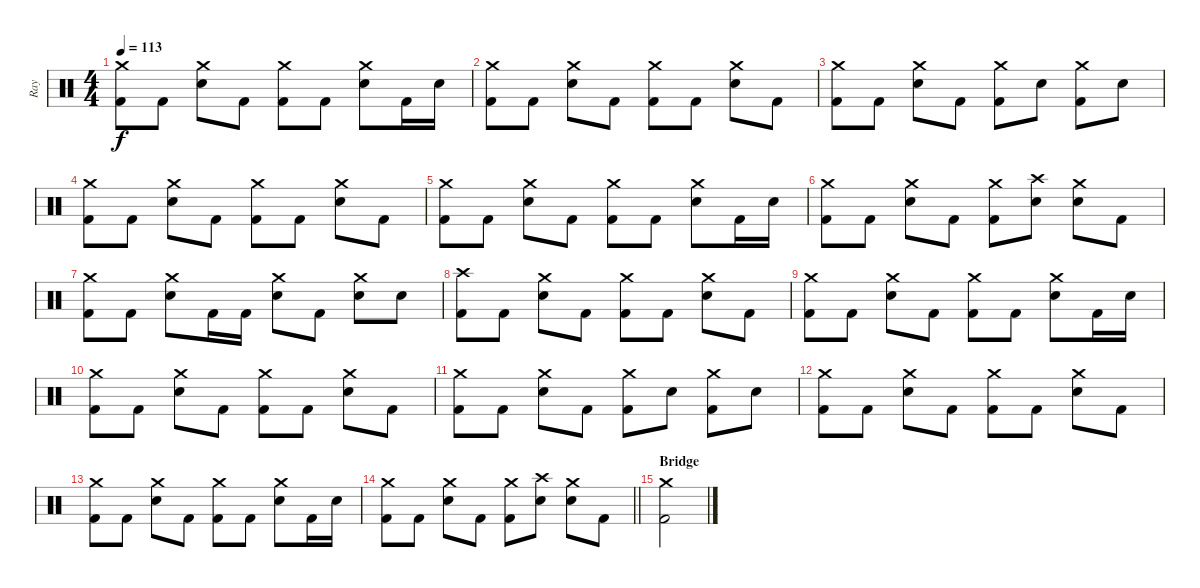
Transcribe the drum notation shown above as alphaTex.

\track ("Ray" "Ray") {instrument percussion}
\staff {score}
\articulation defaults
\ts (4 4)
\tempo 113
\clef neutral
\ks c
("Crash medium (hit)" "Kick (hit) 2").8{dy f} "Kick (hit) 2".8 ("Crash medium (hit)" "Electric Snare (hit)").8 "Kick (hit) 2".8 ("Crash medium (hit)" "Kick (hit) 2").8 "Kick (hit) 2".8 ("Crash medium (hit)" "Electric Snare (hit)").8 "Kick (hit) 2".16 "Electric Snare (hit)".16 |
("Crash medium (hit)" "Kick (hit) 2").8 "Kick (hit) 2".8 ("Crash medium (hit)" "Electric Snare (hit)").8 "Kick (hit) 2".8 ("Crash medium (hit)" "Kick (hit) 2").8 "Kick (hit) 2".8 ("Crash medium (hit)" "Electric Snare (hit)").8 "Kick (hit) 2".8 |
("Crash medium (hit)" "Kick (hit) 2").8 "Kick (hit) 2".8 ("Crash medium (hit)" "Electric Snare (hit)").8 "Kick (hit) 2".8 ("Crash medium (hit)" "Kick (hit) 2").8 "Electric Snare (hit)".8 ("Crash medium (hit)" "Kick (hit) 2").8 "Electric Snare (hit)".8 |
("Crash medium (hit)" "Kick (hit) 2").8 "Kick (hit) 2".8 ("Crash medium (hit)" "Electric Snare (hit)").8 "Kick (hit) 2".8 ("Crash medium (hit)" "Kick (hit) 2").8 "Kick (hit) 2".8 ("Crash medium (hit)" "Electric Snare (hit)").8 "Kick (hit) 2".8 |
("Crash medium (hit)" "Kick (hit) 2").8 "Kick (hit) 2".8 ("Crash medium (hit)" "Electric Snare (hit)").8 "Kick (hit) 2".8 ("Crash medium (hit)" "Kick (hit) 2").8 "Kick (hit) 2".8 ("Crash medium (hit)" "Electric Snare (hit)").8 "Kick (hit) 2".16 "Electric Snare (hit)".16 |
("Crash medium (hit)" "Kick (hit) 2").8 "Kick (hit) 2".8 ("Crash medium (hit)" "Electric Snare (hit)").8 "Kick (hit) 2".8 ("Crash medium (hit)" "Kick (hit) 2").8 ("Crash high (hit)" "Electric Snare (hit)").8 ("Crash medium (hit)" "Electric Snare (hit)").8 "Kick (hit) 2".8 |
("Crash medium (hit)" "Kick (hit) 2").8 "Kick (hit) 2".8 ("Crash medium (hit)" "Electric Snare (hit)").8 "Kick (hit) 2".16 "Kick (hit) 2".16 ("Crash medium (hit)" "Electric Snare (hit)").8 "Kick (hit) 2".8 ("Crash medium (hit)" "Electric Snare (hit)").8 "Electric Snare (hit)".8 |
("Crash high (hit)" "Kick (hit) 2").8 "Kick (hit) 2".8 ("Crash medium (hit)" "Electric Snare (hit)").8 "Kick (hit) 2".8 ("Crash medium (hit)" "Kick (hit) 2").8 "Kick (hit) 2".8 ("Crash medium (hit)" "Electric Snare (hit)").8 "Kick (hit) 2".8 |
("Crash medium (hit)" "Kick (hit) 2").8 "Kick (hit) 2".8 ("Crash medium (hit)" "Electric Snare (hit)").8 "Kick (hit) 2".8 ("Crash medium (hit)" "Kick (hit) 2").8 "Kick (hit) 2".8 ("Crash medium (hit)" "Electric Snare (hit)").8 "Kick (hit) 2".16 "Electric Snare (hit)".16 |
("Crash medium (hit)" "Kick (hit) 2").8 "Kick (hit) 2".8 ("Crash medium (hit)" "Electric Snare (hit)").8 "Kick (hit) 2".8 ("Crash medium (hit)" "Kick (hit) 2").8 "Kick (hit) 2".8 ("Crash medium (hit)" "Electric Snare (hit)").8 "Kick (hit) 2".8 |
("Crash medium (hit)" "Kick (hit) 2").8 "Kick (hit) 2".8 ("Crash medium (hit)" "Electric Snare (hit)").8 "Kick (hit) 2".8 ("Crash medium (hit)" "Kick (hit) 2").8 "Electric Snare (hit)".8 ("Crash medium (hit)" "Kick (hit) 2").8 "Electric Snare (hit)".8 |
("Crash medium (hit)" "Kick (hit) 2").8 "Kick (hit) 2".8 ("Crash medium (hit)" "Electric Snare (hit)").8 "Kick (hit) 2".8 ("Crash medium (hit)" "Kick (hit) 2").8 "Kick (hit) 2".8 ("Crash medium (hit)" "Electric Snare (hit)").8 "Kick (hit) 2".8 |
("Crash medium (hit)" "Kick (hit) 2").8 "Kick (hit) 2".8 ("Crash medium (hit)" "Electric Snare (hit)").8 "Kick (hit) 2".8 ("Crash medium (hit)" "Kick (hit) 2").8 "Kick (hit) 2".8 ("Crash medium (hit)" "Electric Snare (hit)").8 "Kick (hit) 2".16 "Electric Snare (hit)".16 |
\barLineRight lightlight
("Crash medium (hit)" "Kick (hit) 2").8 "Kick (hit) 2".8 ("Crash medium (hit)" "Electric Snare (hit)").8 "Kick (hit) 2".8 ("Crash medium (hit)" "Kick (hit) 2").8 ("Crash high (hit)" "Electric Snare (hit)").8 ("Crash medium (hit)" "Electric Snare (hit)").8 "Kick (hit) 2".8 |
\section ("" "Bridge")
("Crash medium (hit)" "Kick (hit) 2").2
